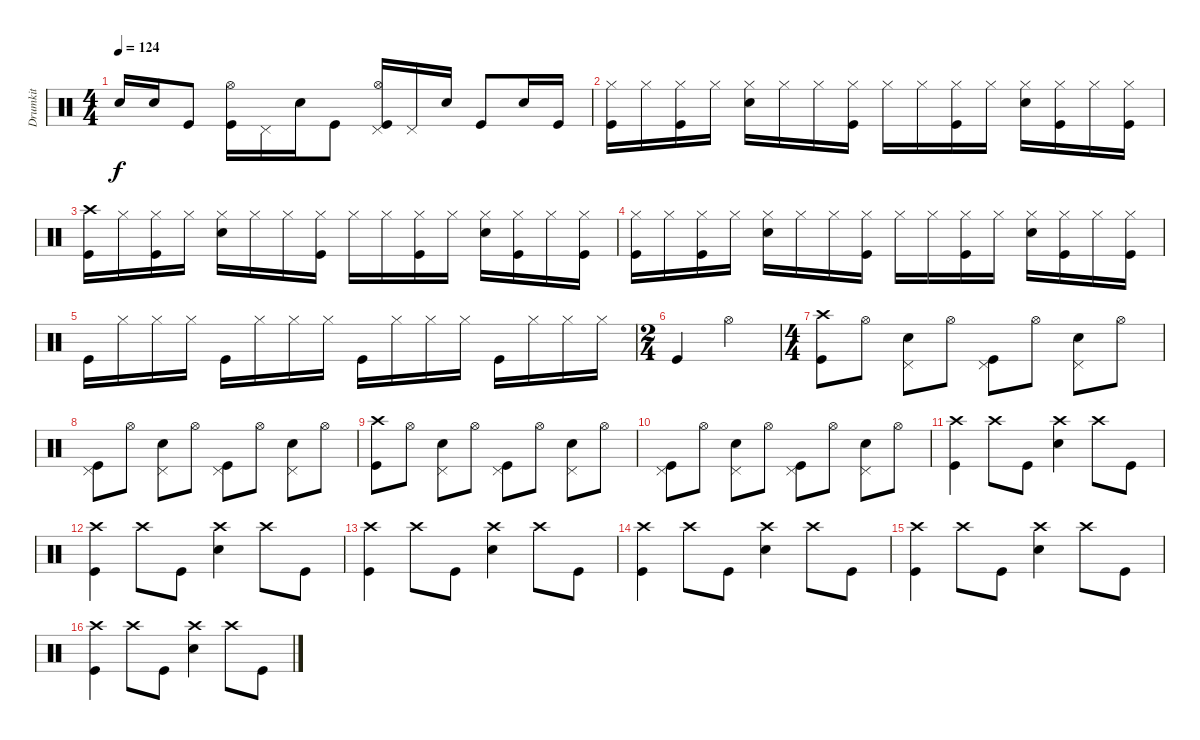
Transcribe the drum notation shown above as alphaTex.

\track ("Drumkit" "Drumkit") {instrument percussion}
\staff {score}
\articulation defaults
\ts (4 4)
\tempo 124
\clef neutral
\ks c "Snare (hit) 2".16{dy f} "Snare (hit) 2".16 "Kick (hit)".8
("Kick (hit)" "Hi-Hat (open)").16 "Pedal Hi-Hat (hit)".16 "Snare (hit) 2".16 "Kick (hit)".8 ("Kick (hit)" "Pedal Hi-Hat (hit)" "Hi-Hat (open)").16 "Pedal Hi-Hat (hit)".16 "Snare (hit) 2".16 "Kick (hit)".8 "Snare (hit) 2".16 "Kick (hit)".16 |
("Kick (hit)" "Hi-Hat (closed)").16 "Hi-Hat (closed)".16 ("Hi-Hat (closed)" "Kick (hit)").16 "Hi-Hat (closed)".16 ("Hi-Hat (closed)" "Snare (hit) 2").16 "Hi-Hat (closed)".16 "Hi-Hat (closed)".16 ("Hi-Hat (closed)" "Kick (hit)").16 "Hi-Hat (closed)".16 "Hi-Hat (closed)".16 ("Hi-Hat (closed)" "Kick (hit)").16 "Hi-Hat (closed)".16 ("Hi-Hat (closed)" "Snare (hit) 2").16 ("Hi-Hat (closed)" "Kick (hit)").16 "Hi-Hat (closed)".16 ("Hi-Hat (closed)" "Kick (hit)").16 |
("Kick (hit)" "Crash high (hit)").16 "Hi-Hat (closed)".16 ("Hi-Hat (closed)" "Kick (hit)").16 "Hi-Hat (closed)".16 ("Hi-Hat (closed)" "Snare (hit) 2").16 "Hi-Hat (closed)".16 "Hi-Hat (closed)".16 ("Hi-Hat (closed)" "Kick (hit)").16 "Hi-Hat (closed)".16 "Hi-Hat (closed)".16 ("Hi-Hat (closed)" "Kick (hit)").16 "Hi-Hat (closed)".16 ("Hi-Hat (closed)" "Snare (hit) 2").16 ("Hi-Hat (closed)" "Kick (hit)").16 "Hi-Hat (closed)".16 ("Hi-Hat (closed)" "Kick (hit)").16 |
("Kick (hit)" "Hi-Hat (closed)").16 "Hi-Hat (closed)".16 ("Hi-Hat (closed)" "Kick (hit)").16 "Hi-Hat (closed)".16 ("Hi-Hat (closed)" "Snare (hit) 2").16 "Hi-Hat (closed)".16 "Hi-Hat (closed)".16 ("Hi-Hat (closed)" "Kick (hit)").16 "Hi-Hat (closed)".16 "Hi-Hat (closed)".16 ("Hi-Hat (closed)" "Kick (hit)").16 "Hi-Hat (closed)".16 ("Hi-Hat (closed)" "Snare (hit) 2").16 ("Hi-Hat (closed)" "Kick (hit)").16 "Hi-Hat (closed)".16 ("Hi-Hat (closed)" "Kick (hit)").16 |
"Kick (hit)".16 "Hi-Hat (closed)".16 "Hi-Hat (closed)".16 "Hi-Hat (closed)".16 "Kick (hit)".16 "Hi-Hat (closed)".16 "Hi-Hat (closed)".16 "Hi-Hat (closed)".16 "Kick (hit)".16 "Hi-Hat (closed)".16 "Hi-Hat (closed)".16 "Hi-Hat (closed)".16 "Kick (hit)".16 "Hi-Hat (closed)".16 "Hi-Hat (closed)".16 "Hi-Hat (closed)".16 |
\ts (2 4)
"Kick (hit)".4 "Hi-Hat (open)".4 |
\ts (4 4)
("Kick (hit)" "Crash high (hit)").8 "Hi-Hat (open)".8 ("Snare (hit) 2" "Pedal Hi-Hat (hit)").8 "Hi-Hat (open)".8 ("Kick (hit)" "Pedal Hi-Hat (hit)").8 "Hi-Hat (open)".8 ("Snare (hit) 2" "Pedal Hi-Hat (hit)").8 "Hi-Hat (open)".8 |
("Kick (hit)" "Pedal Hi-Hat (hit)").8 "Hi-Hat (open)".8 ("Snare (hit) 2" "Pedal Hi-Hat (hit)").8 "Hi-Hat (open)".8 ("Kick (hit)" "Pedal Hi-Hat (hit)").8 "Hi-Hat (open)".8 ("Snare (hit) 2" "Pedal Hi-Hat (hit)").8 "Hi-Hat (open)".8 |
("Kick (hit)" "Crash high (hit)").8 "Hi-Hat (open)".8 ("Snare (hit) 2" "Pedal Hi-Hat (hit)").8 "Hi-Hat (open)".8 ("Kick (hit)" "Pedal Hi-Hat (hit)").8 "Hi-Hat (open)".8 ("Snare (hit) 2" "Pedal Hi-Hat (hit)").8 "Hi-Hat (open)".8 |
("Kick (hit)" "Pedal Hi-Hat (hit)").8 "Hi-Hat (open)".8 ("Snare (hit) 2" "Pedal Hi-Hat (hit)").8 "Hi-Hat (open)".8 ("Kick (hit)" "Pedal Hi-Hat (hit)").8 "Hi-Hat (open)".8 ("Snare (hit) 2" "Pedal Hi-Hat (hit)").8 "Hi-Hat (open)".8 |
("Kick (hit)" "Crash high (hit)").4 "Crash high (hit)".8 "Kick (hit)".8 ("Snare (hit) 2" "Crash high (hit)").4 "Crash high (hit)".8 "Kick (hit)".8 |
("Kick (hit)" "Crash high (hit)").4 "Crash high (hit)".8 "Kick (hit)".8 ("Snare (hit) 2" "Crash high (hit)").4 "Crash high (hit)".8 "Kick (hit)".8 |
("Kick (hit)" "Crash high (hit)").4 "Crash high (hit)".8 "Kick (hit)".8 ("Snare (hit) 2" "Crash high (hit)").4 "Crash high (hit)".8 "Kick (hit)".8 |
("Kick (hit)" "Crash high (hit)").4 "Crash high (hit)".8 "Kick (hit)".8 ("Snare (hit) 2" "Crash high (hit)").4 "Crash high (hit)".8 "Kick (hit)".8 |
("Kick (hit)" "Crash high (hit)").4 "Crash high (hit)".8 "Kick (hit)".8 ("Snare (hit) 2" "Crash high (hit)").4 "Crash high (hit)".8 "Kick (hit)".8 |
("Kick (hit)" "Crash high (hit)").4 "Crash high (hit)".8 "Kick (hit)".8 ("Snare (hit) 2" "Crash high (hit)").4 "Crash high (hit)".8 "Kick (hit)".8
